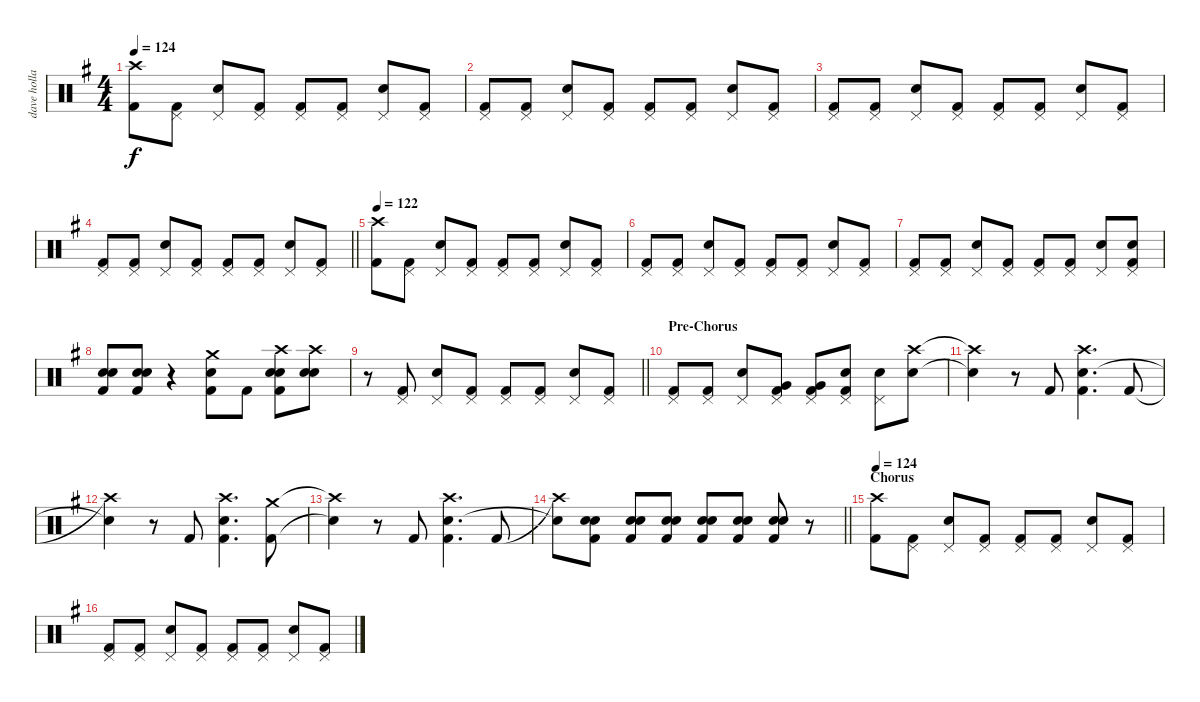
\track ("dave holland" "dave holla") {instrument percussion}
\staff {score}
\articulation defaults
\ts (4 4)
\tempo 124
\clef neutral
\ks g
("Crash high (hit)" "Kick (hit) 2").8{dy f} ("Pedal Hi-Hat (hit)" "Kick (hit) 2").8 ("Pedal Hi-Hat (hit)" "Snare (hit) 2").8 ("Pedal Hi-Hat (hit)" "Kick (hit) 2").8 ("Pedal Hi-Hat (hit)" "Kick (hit) 2").8 ("Pedal Hi-Hat (hit)" "Kick (hit) 2").8 ("Pedal Hi-Hat (hit)" "Snare (hit) 2").8 ("Pedal Hi-Hat (hit)" "Kick (hit) 2").8 |
("Pedal Hi-Hat (hit)" "Kick (hit) 2").8 ("Pedal Hi-Hat (hit)" "Kick (hit) 2").8 ("Pedal Hi-Hat (hit)" "Snare (hit) 2").8 ("Pedal Hi-Hat (hit)" "Kick (hit) 2").8 ("Pedal Hi-Hat (hit)" "Kick (hit) 2").8 ("Pedal Hi-Hat (hit)" "Kick (hit) 2").8 ("Pedal Hi-Hat (hit)" "Snare (hit) 2").8 ("Pedal Hi-Hat (hit)" "Kick (hit) 2").8 |
("Pedal Hi-Hat (hit)" "Kick (hit) 2").8 ("Pedal Hi-Hat (hit)" "Kick (hit) 2").8 ("Pedal Hi-Hat (hit)" "Snare (hit) 2").8 ("Pedal Hi-Hat (hit)" "Kick (hit) 2").8 ("Pedal Hi-Hat (hit)" "Kick (hit) 2").8 ("Pedal Hi-Hat (hit)" "Kick (hit) 2").8 ("Pedal Hi-Hat (hit)" "Snare (hit) 2").8 ("Pedal Hi-Hat (hit)" "Kick (hit) 2").8 |
\barLineRight lightlight
("Pedal Hi-Hat (hit)" "Kick (hit) 2").8 ("Pedal Hi-Hat (hit)" "Kick (hit) 2").8 ("Pedal Hi-Hat (hit)" "Snare (hit) 2").8 ("Pedal Hi-Hat (hit)" "Kick (hit) 2").8 ("Pedal Hi-Hat (hit)" "Kick (hit) 2").8 ("Pedal Hi-Hat (hit)" "Kick (hit) 2").8 ("Pedal Hi-Hat (hit)" "Snare (hit) 2").8 ("Pedal Hi-Hat (hit)" "Kick (hit) 2").8 |
\tempo 122
("Crash high (hit)" "Kick (hit) 2").8 ("Pedal Hi-Hat (hit)" "Kick (hit) 2").8 ("Pedal Hi-Hat (hit)" "Snare (hit) 2").8 ("Pedal Hi-Hat (hit)" "Kick (hit) 2").8 ("Pedal Hi-Hat (hit)" "Kick (hit) 2").8 ("Pedal Hi-Hat (hit)" "Kick (hit) 2").8 ("Pedal Hi-Hat (hit)" "Snare (hit) 2").8 ("Pedal Hi-Hat (hit)" "Kick (hit) 2").8 |
("Pedal Hi-Hat (hit)" "Kick (hit) 2").8 ("Pedal Hi-Hat (hit)" "Kick (hit) 2").8 ("Pedal Hi-Hat (hit)" "Snare (hit) 2").8 ("Pedal Hi-Hat (hit)" "Kick (hit) 2").8 ("Pedal Hi-Hat (hit)" "Kick (hit) 2").8 ("Pedal Hi-Hat (hit)" "Kick (hit) 2").8 ("Pedal Hi-Hat (hit)" "Snare (hit) 2").8 ("Pedal Hi-Hat (hit)" "Kick (hit) 2").8 |
("Pedal Hi-Hat (hit)" "Kick (hit) 2").8 ("Pedal Hi-Hat (hit)" "Kick (hit) 2").8 ("Pedal Hi-Hat (hit)" "Snare (hit) 2").8 ("Pedal Hi-Hat (hit)" "Kick (hit) 2").8 ("Pedal Hi-Hat (hit)" "Kick (hit) 2").8 ("Pedal Hi-Hat (hit)" "Kick (hit) 2").8 ("Pedal Hi-Hat (hit)" "Snare (hit) 2").8 ("Pedal Hi-Hat (hit)" "Snare (hit) 2" "Kick (hit) 2").8 |
("Electric Snare (hit)" "Snare (hit) 2" "Kick (hit) 2").8 ("Electric Snare (hit)" "Snare (hit) 2" "Kick (hit) 2").8 r.4 ("Crash medium (hit)" "Snare (hit) 2" "Kick (hit) 2").8 "Kick (hit) 2".8 ("Crash high (hit)" "Electric Snare (hit)" "Snare (hit) 2" "Kick (hit) 2").8 ("Crash high (hit)" "Electric Snare (hit)" "Snare (hit) 2").8 |
\barLineRight lightlight
r.8 ("Pedal Hi-Hat (hit)" "Kick (hit) 2").8 ("Pedal Hi-Hat (hit)" "Snare (hit) 2").8 ("Pedal Hi-Hat (hit)" "Kick (hit) 2").8 ("Pedal Hi-Hat (hit)" "Kick (hit) 2").8 ("Pedal Hi-Hat (hit)" "Kick (hit) 2").8 ("Pedal Hi-Hat (hit)" "Snare (hit) 2").8 ("Pedal Hi-Hat (hit)" "Kick (hit) 2").8 |
\section ("" "Pre-Chorus")
("Pedal Hi-Hat (hit)" "Kick (hit) 2").8 ("Pedal Hi-Hat (hit)" "Kick (hit) 2").8 ("Pedal Hi-Hat (hit)" "Snare (hit) 2").8 ("Pedal Hi-Hat (hit)" "Very Low Tom (hit)" "Kick (hit) 2").8 ("Pedal Hi-Hat (hit)" "Very Low Tom (hit)" "Kick (hit) 2").8 ("Pedal Hi-Hat (hit)" "Electric Snare (hit)" "Kick (hit) 2").8 ("Pedal Hi-Hat (hit)" "Electric Snare (hit)").8 ("Crash high (hit)" "Snare (hit) 2").8 |
("Crash high (hit)"{t} "Snare (hit) 2"{t}).4 r.8 "Kick (hit) 2".8 ("Crash high (hit)" "Snare (hit) 2" "Kick (hit) 2").4{d} "Kick (hit) 2".8 |
("Crash high (hit)"{t} "Snare (hit) 2"{t}).4 r.8 "Kick (hit) 2".8 ("Crash high (hit)" "Snare (hit) 2" "Kick (hit) 2").4{d} ("Crash medium (hit)" "Kick (hit) 2").8 |
("Crash high (hit)"{t} "Snare (hit) 2"{t}).4 r.8 "Kick (hit) 2".8 ("Crash high (hit)" "Snare (hit) 2" "Kick (hit) 2").4{d} "Kick (hit) 2".8 |
\barLineRight lightlight
("Crash high (hit)"{t} "Snare (hit) 2"{t}).8 ("Electric Snare (hit)" "Snare (hit) 2" "Kick (hit) 2").8 ("Electric Snare (hit)" "Snare (hit) 2" "Kick (hit) 2").8 ("Electric Snare (hit)" "Snare (hit) 2" "Kick (hit) 2").8 ("Electric Snare (hit)" "Snare (hit) 2" "Kick (hit) 2").8 ("Electric Snare (hit)" "Snare (hit) 2" "Kick (hit) 2").8 ("Electric Snare (hit)" "Snare (hit) 2" "Kick (hit) 2").8 r.8 |
\section ("" "Chorus")
\tempo 124
("Crash high (hit)" "Kick (hit) 2").8 ("Pedal Hi-Hat (hit)" "Kick (hit) 2").8 ("Pedal Hi-Hat (hit)" "Snare (hit) 2").8 ("Pedal Hi-Hat (hit)" "Kick (hit) 2").8 ("Pedal Hi-Hat (hit)" "Kick (hit) 2").8 ("Pedal Hi-Hat (hit)" "Kick (hit) 2").8 ("Pedal Hi-Hat (hit)" "Snare (hit) 2").8 ("Pedal Hi-Hat (hit)" "Kick (hit) 2").8 |
("Pedal Hi-Hat (hit)" "Kick (hit) 2").8 ("Pedal Hi-Hat (hit)" "Kick (hit) 2").8 ("Pedal Hi-Hat (hit)" "Snare (hit) 2").8 ("Pedal Hi-Hat (hit)" "Kick (hit) 2").8 ("Pedal Hi-Hat (hit)" "Kick (hit) 2").8 ("Pedal Hi-Hat (hit)" "Kick (hit) 2").8 ("Pedal Hi-Hat (hit)" "Snare (hit) 2").8 ("Pedal Hi-Hat (hit)" "Kick (hit) 2").8
